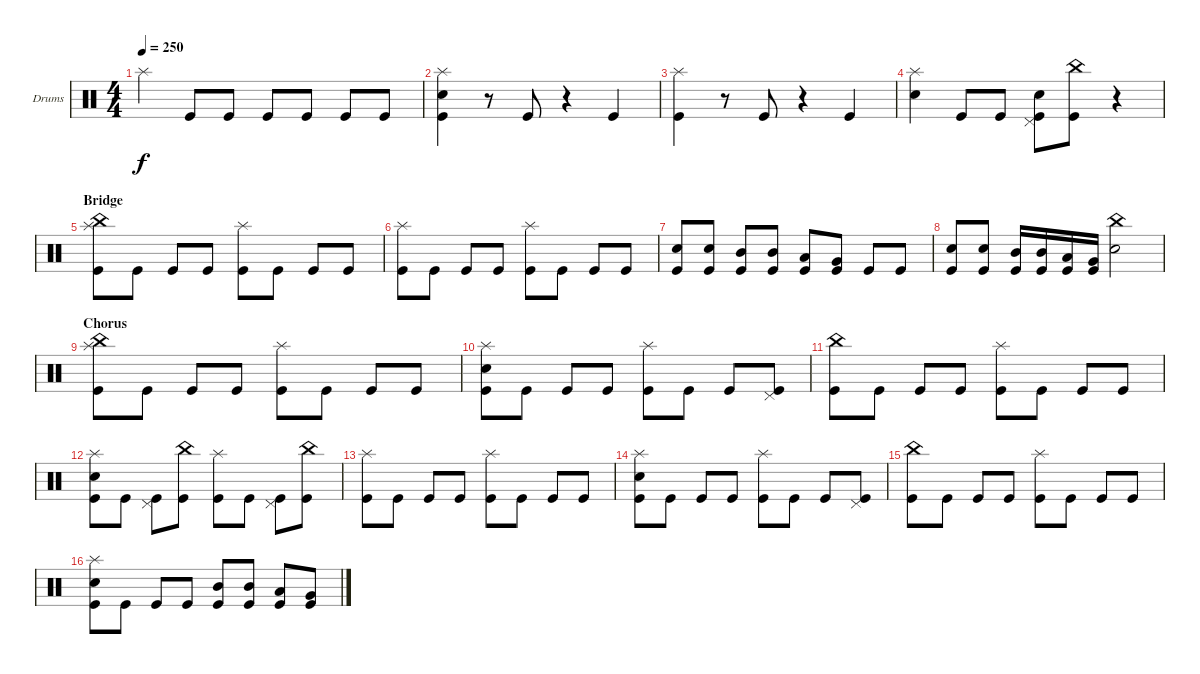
\defaultSystemsLayout 4
\bracketExtendMode groupsimilarinstruments
\firstSystemTrackNameOrientation horizontal
\otherSystemsTrackNameOrientation horizontal
\track ("Drumkit" "Drums") {instrument percussion}
\staff {score}
\articulation defaults
\ts (4 4)
\tempo 250
\clef neutral
\ks c "Splash (hit)".4{dy f} "Kick (hit)".8 "Kick (hit)".8 "Kick (hit)".8 "Kick (hit)".8 "Kick (hit)".8 "Kick (hit)".8
|
("Splash (hit)" "Kick (hit)" "Snare (hit) 2").4 r.8 "Kick (hit)".8 r.4 "Kick (hit)".4 |
("Splash (hit)" "Kick (hit)").4 r.8 "Kick (hit)".8 r.4 "Kick (hit)".4 |
("Splash (hit)" "Snare (hit) 2").4 "Kick (hit)".8 "Kick (hit)".8 ("Kick (hit)" "Pedal Hi-Hat (hit)" "Snare (hit) 2").8 ("Kick (hit)" "China (hit)").8 r.4 |
\section ("" "Bridge")
("Kick (hit)" "Splash (hit)" "China (hit)").8 "Kick (hit)".8 "Kick (hit)".8 "Kick (hit)".8 ("Kick (hit)" "Splash (hit)").8 "Kick (hit)".8 "Kick (hit)".8 "Kick (hit)".8 |
("Kick (hit)" "Splash (hit)").8 "Kick (hit)".8 "Kick (hit)".8 "Kick (hit)".8 ("Kick (hit)" "Splash (hit)").8 "Kick (hit)".8 "Kick (hit)".8 "Kick (hit)".8 |
("Kick (hit)" "Snare (hit) 2").8 ("Kick (hit)" "Snare (hit) 2").8 ("Kick (hit)" "Mid Tom (hit)").8 ("Kick (hit)" "Mid Tom (hit)").8 ("Kick (hit)" "Low Tom (hit)").8 ("Kick (hit)" "Very Low Tom (hit)").8 "Kick (hit)".8 "Kick (hit)".8 |
("Kick (hit)" "Snare (hit) 2").8 ("Kick (hit)" "Snare (hit) 2").8 ("Kick (hit)" "Mid Tom (hit)").16 ("Kick (hit)" "Mid Tom (hit)").16 ("Kick (hit)" "Low Tom (hit)").16 ("Kick (hit)" "Very Low Tom (hit)").16 ("Snare (hit) 2" "China (hit)").2 |
\section ("" "Chorus")
("Kick (hit)" "Splash (hit)" "China (hit)").8 "Kick (hit)".8 "Kick (hit)".8 "Kick (hit)".8 ("Kick (hit)" "Splash (hit)").8 "Kick (hit)".8 "Kick (hit)".8 "Kick (hit)".8 |
("Kick (hit)" "Splash (hit)" "Snare (hit) 2").8 "Kick (hit)".8 "Kick (hit)".8 "Kick (hit)".8 ("Kick (hit)" "Splash (hit)").8 "Kick (hit)".8 "Kick (hit)".8 ("Kick (hit)" "Pedal Hi-Hat (hit)").8 |
("Kick (hit)" "China (hit)").8 "Kick (hit)".8 "Kick (hit)".8 "Kick (hit)".8 ("Kick (hit)" "Splash (hit)").8 "Kick (hit)".8 "Kick (hit)".8 "Kick (hit)".8 |
("Kick (hit)" "Splash (hit)" "Snare (hit) 2").8 "Kick (hit)".8 ("Kick (hit)" "Pedal Hi-Hat (hit)").8 ("Kick (hit)" "China (hit)").8 ("Kick (hit)" "Splash (hit)").8 "Kick (hit)".8 ("Kick (hit)" "Pedal Hi-Hat (hit)").8 ("Kick (hit)" "China (hit)").8 |
("Kick (hit)" "Splash (hit)").8 "Kick (hit)".8 "Kick (hit)".8 "Kick (hit)".8 ("Kick (hit)" "Splash (hit)").8 "Kick (hit)".8 "Kick (hit)".8 "Kick (hit)".8 |
("Kick (hit)" "Splash (hit)" "Snare (hit) 2").8 "Kick (hit)".8 "Kick (hit)".8 "Kick (hit)".8 ("Kick (hit)" "Splash (hit)").8 "Kick (hit)".8 "Kick (hit)".8 ("Kick (hit)" "Pedal Hi-Hat (hit)").8 |
("Kick (hit)" "China (hit)").8 "Kick (hit)".8 "Kick (hit)".8 "Kick (hit)".8 ("Kick (hit)" "Splash (hit)").8 "Kick (hit)".8 "Kick (hit)".8 "Kick (hit)".8 |
("Kick (hit)" "Splash (hit)" "Snare (hit) 2").8 "Kick (hit)".8 "Kick (hit)".8 "Kick (hit)".8 ("Kick (hit)" "Mid Tom (hit)").8 ("Kick (hit)" "Mid Tom (hit)").8 ("Kick (hit)" "Low Tom (hit)").8 ("Kick (hit)" "Very Low Tom (hit)").8
